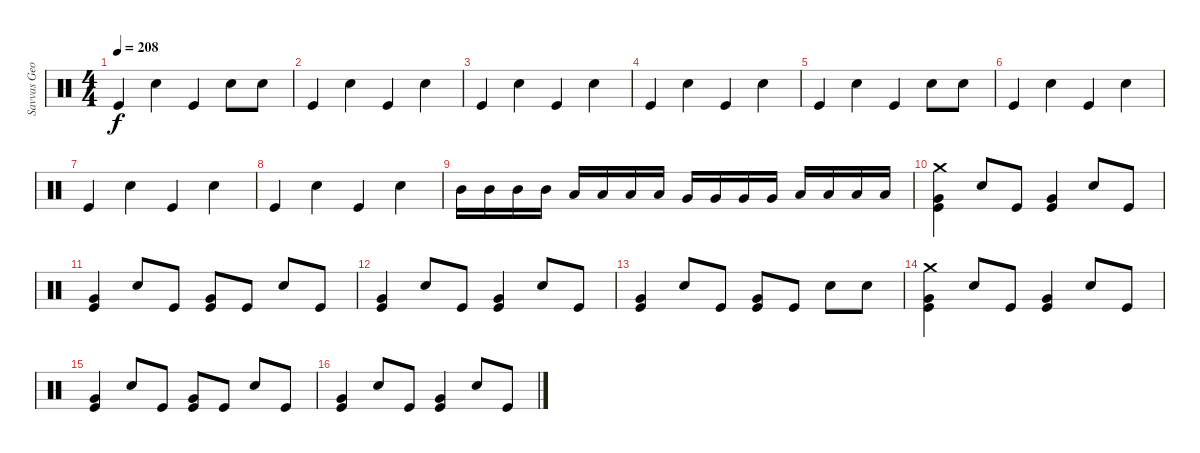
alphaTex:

\track ("Savvas Georgiadis" "Savvas Geo") {instrument percussion}
\staff {score}
\articulation defaults
\ts (4 4)
\tempo 208
\clef neutral
\ks c "Kick (hit)".4{dy f} "Snare (hit) 2".4 "Kick (hit)".4 "Snare (hit) 2".8 "Snare (hit) 2".8
|
"Kick (hit)".4 "Snare (hit) 2".4 "Kick (hit)".4 "Snare (hit) 2".4 |
"Kick (hit)".4 "Snare (hit) 2".4 "Kick (hit)".4 "Snare (hit) 2".4 |
"Kick (hit)".4 "Snare (hit) 2".4 "Kick (hit)".4 "Snare (hit) 2".4 |
"Kick (hit)".4 "Snare (hit) 2".4 "Kick (hit)".4 "Snare (hit) 2".8 "Snare (hit) 2".8 |
"Kick (hit)".4 "Snare (hit) 2".4 "Kick (hit)".4 "Snare (hit) 2".4 |
"Kick (hit)".4 "Snare (hit) 2".4 "Kick (hit)".4 "Snare (hit) 2".4 |
"Kick (hit)".4 "Snare (hit) 2".4 "Kick (hit)".4 "Snare (hit) 2".4 |
"Mid Tom (hit)".16 "Mid Tom (hit)".16 "Mid Tom (hit)".16 "Mid Tom (hit)".16 "Low Tom (hit)".16 "Low Tom (hit)".16 "Low Tom (hit)".16 "Low Tom (hit)".16 "Very Low Tom (hit)".16 "Very Low Tom (hit)".16 "Very Low Tom (hit)".16 "Very Low Tom (hit)".16 "Low Floor Tom (hit)".16 "Low Floor Tom (hit)".16 "Low Floor Tom (hit)".16 "Low Floor Tom (hit)".16 |
("Crash medium (hit)" "Very Low Tom (hit)" "Kick (hit)").4 "Snare (hit) 2".8 "Kick (hit)".8 ("Very Low Tom (hit)" "Kick (hit)").4 "Snare (hit) 2".8 "Kick (hit)".8 |
("Very Low Tom (hit)" "Kick (hit)").4 "Snare (hit) 2".8 "Kick (hit)".8 ("Very Low Tom (hit)" "Kick (hit)").8 "Kick (hit)".8 "Snare (hit) 2".8 "Kick (hit)".8 |
("Very Low Tom (hit)" "Kick (hit)").4 "Snare (hit) 2".8 "Kick (hit)".8 ("Very Low Tom (hit)" "Kick (hit)").4 "Snare (hit) 2".8 "Kick (hit)".8 |
("Very Low Tom (hit)" "Kick (hit)").4 "Snare (hit) 2".8 "Kick (hit)".8 ("Very Low Tom (hit)" "Kick (hit)").8 "Kick (hit)".8 "Snare (hit) 2".8 "Snare (hit) 2".8 |
("Crash medium (hit)" "Very Low Tom (hit)" "Kick (hit)").4 "Snare (hit) 2".8 "Kick (hit)".8 ("Very Low Tom (hit)" "Kick (hit)").4 "Snare (hit) 2".8 "Kick (hit)".8 |
("Very Low Tom (hit)" "Kick (hit)").4 "Snare (hit) 2".8 "Kick (hit)".8 ("Very Low Tom (hit)" "Kick (hit)").8 "Kick (hit)".8 "Snare (hit) 2".8 "Kick (hit)".8 |
("Very Low Tom (hit)" "Kick (hit)").4 "Snare (hit) 2".8 "Kick (hit)".8 ("Very Low Tom (hit)" "Kick (hit)").4 "Snare (hit) 2".8 "Kick (hit)".8
